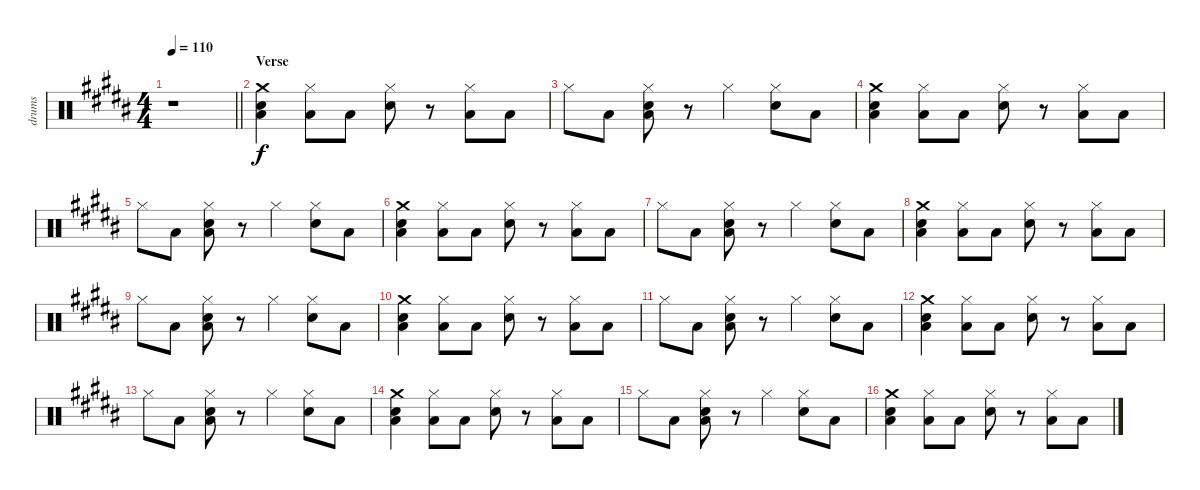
\track ("drums" "drums") {instrument percussion}
\staff {score}
\articulation defaults
\ts (4 4)
\tempo 110
\clef neutral
\barLineRight lightlight
\ks b
r.1{dy f} |
\section ("" "Verse")
("Crash medium (hit)" "Electric Snare (hit)" "Low Floor Tom (hit)").4 ("Hi-Hat (closed)" "Low Floor Tom (hit)").8 "Low Floor Tom (hit)".8 ("Hi-Hat (closed)" "Electric Snare (hit)").8 r.8 ("Hi-Hat (closed)" "Low Floor Tom (hit)").8 "Low Floor Tom (hit)".8 |
"Hi-Hat (closed)".8 "Low Floor Tom (hit)".8 ("Hi-Hat (closed)" "Electric Snare (hit)" "Low Floor Tom (hit)").8 r.8 "Hi-Hat (closed)".4 ("Hi-Hat (closed)" "Electric Snare (hit)").8 "Low Floor Tom (hit)".8 |
("Crash medium (hit)" "Electric Snare (hit)" "Low Floor Tom (hit)").4 ("Hi-Hat (closed)" "Low Floor Tom (hit)").8 "Low Floor Tom (hit)".8 ("Hi-Hat (closed)" "Electric Snare (hit)").8 r.8 ("Hi-Hat (closed)" "Low Floor Tom (hit)").8 "Low Floor Tom (hit)".8 |
"Hi-Hat (closed)".8 "Low Floor Tom (hit)".8 ("Hi-Hat (closed)" "Electric Snare (hit)" "Low Floor Tom (hit)").8 r.8 "Hi-Hat (closed)".4 ("Hi-Hat (closed)" "Electric Snare (hit)").8 "Low Floor Tom (hit)".8 |
("Crash medium (hit)" "Electric Snare (hit)" "Low Floor Tom (hit)").4 ("Hi-Hat (closed)" "Low Floor Tom (hit)").8 "Low Floor Tom (hit)".8 ("Hi-Hat (closed)" "Electric Snare (hit)").8 r.8 ("Hi-Hat (closed)" "Low Floor Tom (hit)").8 "Low Floor Tom (hit)".8 |
"Hi-Hat (closed)".8 "Low Floor Tom (hit)".8 ("Hi-Hat (closed)" "Electric Snare (hit)" "Low Floor Tom (hit)").8 r.8 "Hi-Hat (closed)".4 ("Hi-Hat (closed)" "Electric Snare (hit)").8 "Low Floor Tom (hit)".8 |
("Crash medium (hit)" "Electric Snare (hit)" "Low Floor Tom (hit)").4 ("Hi-Hat (closed)" "Low Floor Tom (hit)").8 "Low Floor Tom (hit)".8 ("Hi-Hat (closed)" "Electric Snare (hit)").8 r.8 ("Hi-Hat (closed)" "Low Floor Tom (hit)").8 "Low Floor Tom (hit)".8 |
"Hi-Hat (closed)".8 "Low Floor Tom (hit)".8 ("Hi-Hat (closed)" "Electric Snare (hit)" "Low Floor Tom (hit)").8 r.8 "Hi-Hat (closed)".4 ("Hi-Hat (closed)" "Electric Snare (hit)").8 "Low Floor Tom (hit)".8 |
("Crash medium (hit)" "Electric Snare (hit)" "Low Floor Tom (hit)").4 ("Hi-Hat (closed)" "Low Floor Tom (hit)").8 "Low Floor Tom (hit)".8 ("Hi-Hat (closed)" "Electric Snare (hit)").8 r.8 ("Hi-Hat (closed)" "Low Floor Tom (hit)").8 "Low Floor Tom (hit)".8 |
"Hi-Hat (closed)".8 "Low Floor Tom (hit)".8 ("Hi-Hat (closed)" "Electric Snare (hit)" "Low Floor Tom (hit)").8 r.8 "Hi-Hat (closed)".4 ("Hi-Hat (closed)" "Electric Snare (hit)").8 "Low Floor Tom (hit)".8 |
("Crash medium (hit)" "Electric Snare (hit)" "Low Floor Tom (hit)").4 ("Hi-Hat (closed)" "Low Floor Tom (hit)").8 "Low Floor Tom (hit)".8 ("Hi-Hat (closed)" "Electric Snare (hit)").8 r.8 ("Hi-Hat (closed)" "Low Floor Tom (hit)").8 "Low Floor Tom (hit)".8 |
"Hi-Hat (closed)".8 "Low Floor Tom (hit)".8 ("Hi-Hat (closed)" "Electric Snare (hit)" "Low Floor Tom (hit)").8 r.8 "Hi-Hat (closed)".4 ("Hi-Hat (closed)" "Electric Snare (hit)").8 "Low Floor Tom (hit)".8 |
("Crash medium (hit)" "Electric Snare (hit)" "Low Floor Tom (hit)").4 ("Hi-Hat (closed)" "Low Floor Tom (hit)").8 "Low Floor Tom (hit)".8 ("Hi-Hat (closed)" "Electric Snare (hit)").8 r.8 ("Hi-Hat (closed)" "Low Floor Tom (hit)").8 "Low Floor Tom (hit)".8 |
"Hi-Hat (closed)".8 "Low Floor Tom (hit)".8 ("Hi-Hat (closed)" "Electric Snare (hit)" "Low Floor Tom (hit)").8 r.8 "Hi-Hat (closed)".4 ("Hi-Hat (closed)" "Electric Snare (hit)").8 "Low Floor Tom (hit)".8 |
("Crash medium (hit)" "Electric Snare (hit)" "Low Floor Tom (hit)").4 ("Hi-Hat (closed)" "Low Floor Tom (hit)").8 "Low Floor Tom (hit)".8 ("Hi-Hat (closed)" "Electric Snare (hit)").8 r.8 ("Hi-Hat (closed)" "Low Floor Tom (hit)").8 "Low Floor Tom (hit)".8
